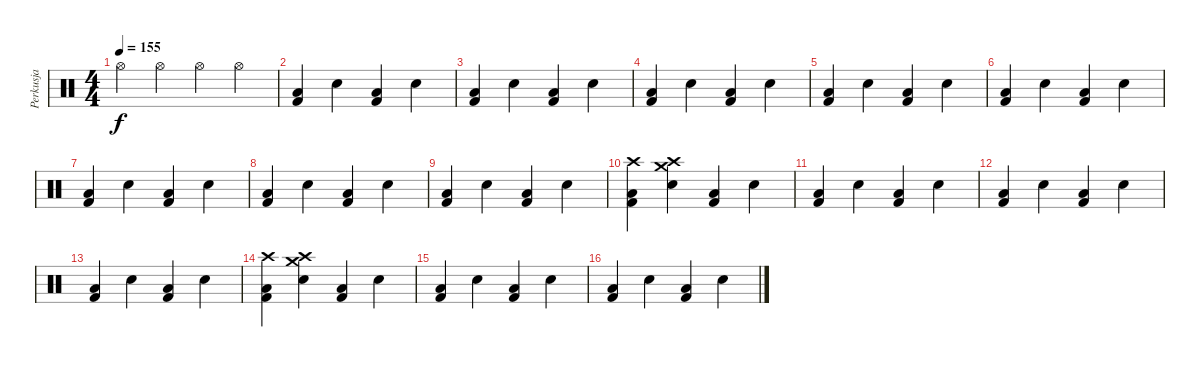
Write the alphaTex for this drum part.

\track ("Perkusja" "Perkusja") {instrument percussion}
\staff {score}
\articulation defaults
\ts (4 4)
\tempo 155
\clef neutral
\ks c "Hi-Hat (open)".4{dy f} "Hi-Hat (open)".4 "Hi-Hat (open)".4 "Hi-Hat (open)".4
|
("Low Floor Tom (hit)" "Kick (hit) 2").4 "Electric Snare (hit)".4 ("Low Floor Tom (hit)" "Kick (hit) 2").4 "Electric Snare (hit)".4 |
("Low Floor Tom (hit)" "Kick (hit) 2").4 "Electric Snare (hit)".4 ("Low Floor Tom (hit)" "Kick (hit) 2").4 "Electric Snare (hit)".4 |
("Low Floor Tom (hit)" "Kick (hit) 2").4 "Electric Snare (hit)".4 ("Low Floor Tom (hit)" "Kick (hit) 2").4 "Electric Snare (hit)".4 |
("Low Floor Tom (hit)" "Kick (hit) 2").4 "Electric Snare (hit)".4 ("Low Floor Tom (hit)" "Kick (hit) 2").4 "Electric Snare (hit)".4 |
("Low Floor Tom (hit)" "Kick (hit) 2").4 "Electric Snare (hit)".4 ("Low Floor Tom (hit)" "Kick (hit) 2").4 "Electric Snare (hit)".4 |
("Low Floor Tom (hit)" "Kick (hit) 2").4 "Electric Snare (hit)".4 ("Low Floor Tom (hit)" "Kick (hit) 2").4 "Electric Snare (hit)".4 |
("Low Floor Tom (hit)" "Kick (hit) 2").4 "Electric Snare (hit)".4 ("Low Floor Tom (hit)" "Kick (hit) 2").4 "Electric Snare (hit)".4 |
("Low Floor Tom (hit)" "Kick (hit) 2").4 "Electric Snare (hit)".4 ("Low Floor Tom (hit)" "Kick (hit) 2").4 "Electric Snare (hit)".4 |
("Crash high (hit)" "Low Floor Tom (hit)" "Kick (hit) 2").4 ("Crash high (hit)" "Crash medium (hit)" "Electric Snare (hit)").4 ("Low Floor Tom (hit)" "Kick (hit) 2").4 "Electric Snare (hit)".4 |
("Low Floor Tom (hit)" "Kick (hit) 2").4 "Electric Snare (hit)".4 ("Low Floor Tom (hit)" "Kick (hit) 2").4 "Electric Snare (hit)".4 |
("Low Floor Tom (hit)" "Kick (hit) 2").4 "Electric Snare (hit)".4 ("Low Floor Tom (hit)" "Kick (hit) 2").4 "Electric Snare (hit)".4 |
("Low Floor Tom (hit)" "Kick (hit) 2").4 "Electric Snare (hit)".4 ("Low Floor Tom (hit)" "Kick (hit) 2").4 "Electric Snare (hit)".4 |
("Crash high (hit)" "Low Floor Tom (hit)" "Kick (hit) 2").4 ("Crash high (hit)" "Crash medium (hit)" "Electric Snare (hit)").4 ("Low Floor Tom (hit)" "Kick (hit) 2").4 "Electric Snare (hit)".4 |
("Low Floor Tom (hit)" "Kick (hit) 2").4 "Electric Snare (hit)".4 ("Low Floor Tom (hit)" "Kick (hit) 2").4 "Electric Snare (hit)".4 |
("Low Floor Tom (hit)" "Kick (hit) 2").4 "Electric Snare (hit)".4 ("Low Floor Tom (hit)" "Kick (hit) 2").4 "Electric Snare (hit)".4
